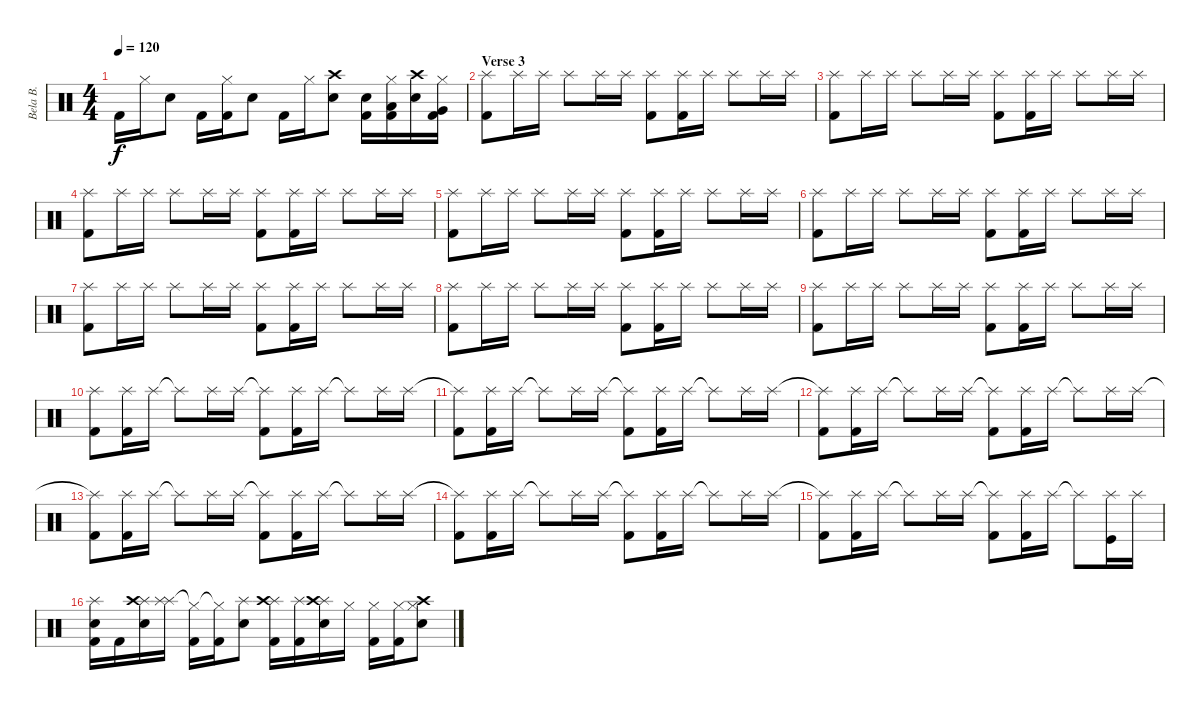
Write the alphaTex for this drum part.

\track ("Bela B." "Bela B.") {instrument percussion}
\staff {score}
\articulation defaults
\ts (4 4)
\tempo 120
\clef neutral
\ks c "Kick (hit) 2".16{dy f} "Hi-Hat (closed)".16 "Electric Snare (hit)".8 "Kick (hit) 2".16
("Hi-Hat (closed)" "Kick (hit) 2").16 "Electric Snare (hit)".8 "Kick (hit) 2".16 "Hi-Hat (closed)".16 ("Crash high (hit)" "Electric Snare (hit)").8 ("Electric Snare (hit)" "Kick (hit) 2").16 ("Hi-Hat (closed)" "Low Floor Tom (hit)" "Kick (hit) 2").16 ("Crash high (hit)" "Electric Snare (hit)").16 ("Hi-Hat (closed)" "Very Low Tom (hit)" "Kick (hit) 2").16 |
\section ("" "Verse 3")
("Splash (hit)" "Kick (hit) 2").8 "Splash (hit)".16 "Splash (hit)".16 "Splash (hit)".8 "Splash (hit)".16 "Splash (hit)".16 ("Splash (hit)" "Kick (hit) 2").8 ("Splash (hit)" "Kick (hit) 2").16 "Splash (hit)".16 "Splash (hit)".8 "Splash (hit)".16 "Splash (hit)".16 |
("Splash (hit)" "Kick (hit) 2").8 "Splash (hit)".16 "Splash (hit)".16 "Splash (hit)".8 "Splash (hit)".16 "Splash (hit)".16 ("Splash (hit)" "Kick (hit) 2").8 ("Splash (hit)" "Kick (hit) 2").16 "Splash (hit)".16 "Splash (hit)".8 "Splash (hit)".16 "Splash (hit)".16 |
("Splash (hit)" "Kick (hit) 2").8 "Splash (hit)".16 "Splash (hit)".16 "Splash (hit)".8 "Splash (hit)".16 "Splash (hit)".16 ("Splash (hit)" "Kick (hit) 2").8 ("Splash (hit)" "Kick (hit) 2").16 "Splash (hit)".16 "Splash (hit)".8 "Splash (hit)".16 "Splash (hit)".16 |
("Splash (hit)" "Kick (hit) 2").8 "Splash (hit)".16 "Splash (hit)".16 "Splash (hit)".8 "Splash (hit)".16 "Splash (hit)".16 ("Splash (hit)" "Kick (hit) 2").8 ("Splash (hit)" "Kick (hit) 2").16 "Splash (hit)".16 "Splash (hit)".8 "Splash (hit)".16 "Splash (hit)".16 |
("Splash (hit)" "Kick (hit) 2").8 "Splash (hit)".16 "Splash (hit)".16 "Splash (hit)".8 "Splash (hit)".16 "Splash (hit)".16 ("Splash (hit)" "Kick (hit) 2").8 ("Splash (hit)" "Kick (hit) 2").16 "Splash (hit)".16 "Splash (hit)".8 "Splash (hit)".16 "Splash (hit)".16 |
("Splash (hit)" "Kick (hit) 2").8 "Splash (hit)".16 "Splash (hit)".16 "Splash (hit)".8 "Splash (hit)".16 "Splash (hit)".16 ("Splash (hit)" "Kick (hit) 2").8 ("Splash (hit)" "Kick (hit) 2").16 "Splash (hit)".16 "Splash (hit)".8 "Splash (hit)".16 "Splash (hit)".16 |
("Splash (hit)" "Kick (hit) 2").8 "Splash (hit)".16 "Splash (hit)".16 "Splash (hit)".8 "Splash (hit)".16 "Splash (hit)".16 ("Splash (hit)" "Kick (hit) 2").8 ("Splash (hit)" "Kick (hit) 2").16 "Splash (hit)".16 "Splash (hit)".8 "Splash (hit)".16 "Splash (hit)".16 |
("Splash (hit)" "Kick (hit) 2").8 "Splash (hit)".16 "Splash (hit)".16 "Splash (hit)".8 "Splash (hit)".16 "Splash (hit)".16 ("Splash (hit)" "Kick (hit) 2").8 ("Splash (hit)" "Kick (hit) 2").16 "Splash (hit)".16 "Splash (hit)".8 "Splash (hit)".16 "Splash (hit)".16 |
("Splash (hit)" "Kick (hit) 2").8 ("Splash (hit)" "Kick (hit) 2").16 "Splash (hit)".16 "Splash (hit)"{t}.8 "Splash (hit)".16 "Splash (hit)".16 ("Splash (hit)"{t} "Kick (hit) 2").8 ("Splash (hit)" "Kick (hit) 2").16 "Splash (hit)".16 "Splash (hit)"{t}.8 "Splash (hit)".16 "Splash (hit)".16 |
("Splash (hit)"{t} "Kick (hit) 2").8 ("Splash (hit)" "Kick (hit) 2").16 "Splash (hit)".16 "Splash (hit)"{t}.8 "Splash (hit)".16 "Splash (hit)".16 ("Splash (hit)"{t} "Kick (hit) 2").8 ("Splash (hit)" "Kick (hit) 2").16 "Splash (hit)".16 "Splash (hit)"{t}.8 "Splash (hit)".16 "Splash (hit)".16 |
("Splash (hit)"{t} "Kick (hit) 2").8 ("Splash (hit)" "Kick (hit) 2").16 "Splash (hit)".16 "Splash (hit)"{t}.8 "Splash (hit)".16 "Splash (hit)".16 ("Splash (hit)"{t} "Kick (hit) 2").8 ("Splash (hit)" "Kick (hit) 2").16 "Splash (hit)".16 "Splash (hit)"{t}.8 "Splash (hit)".16 "Splash (hit)".16 |
("Splash (hit)"{t} "Kick (hit) 2").8 ("Splash (hit)" "Kick (hit) 2").16 "Splash (hit)".16 "Splash (hit)"{t}.8 "Splash (hit)".16 "Splash (hit)".16 ("Splash (hit)"{t} "Kick (hit) 2").8 ("Splash (hit)" "Kick (hit) 2").16 "Splash (hit)".16 "Splash (hit)"{t}.8 "Splash (hit)".16 "Splash (hit)".16 |
("Splash (hit)"{t} "Kick (hit) 2").8 ("Splash (hit)" "Kick (hit) 2").16 "Splash (hit)".16 "Splash (hit)"{t}.8 "Splash (hit)".16 "Splash (hit)".16 ("Splash (hit)"{t} "Kick (hit) 2").8 ("Splash (hit)" "Kick (hit) 2").16 "Splash (hit)".16 "Splash (hit)"{t}.8 "Splash (hit)".16 "Splash (hit)".16 |
("Splash (hit)"{t} "Kick (hit) 2").8 ("Splash (hit)" "Kick (hit) 2").16 "Splash (hit)".16 "Splash (hit)"{t}.8 "Splash (hit)".16 "Splash (hit)".16 ("Splash (hit)"{t} "Kick (hit) 2").8 ("Splash (hit)" "Kick (hit) 2").16 "Splash (hit)".16 "Splash (hit)"{t}.8 ("Splash (hit)" "Kick (hit)").16 "Splash (hit)".16 |
("Splash (hit)" "Electric Snare (hit)" "Kick (hit) 2").16 "Kick (hit) 2".16 ("Splash (hit)" "Crash high (hit)" "Electric Snare (hit)").16 ("Splash (hit)" "Splash (hit)").16 ("Hi-Hat (closed)"{t} "Kick (hit) 2").16 ("Hi-Hat (closed)"{t} "Kick (hit) 2").16 ("Splash (hit)" "Electric Snare (hit)").8 ("Splash (hit)" "Crash high (hit)" "Kick (hit) 2").16 ("Splash (hit)" "Kick (hit) 2").16 ("Splash (hit)" "Crash high (hit)" "Electric Snare (hit)").16 "Hi-Hat (closed)".16 ("Hi-Hat (closed)" "Kick (hit) 2").16 ("Hi-Hat (closed)" "Kick (hit) 2").16 ("Hi-Hat (closed)" "Crash high (hit)" "Electric Snare (hit)").8
